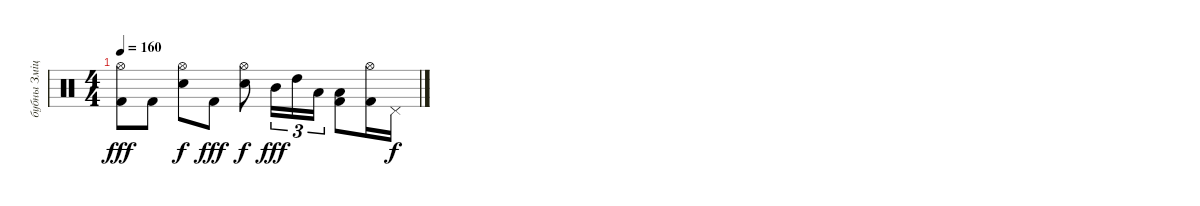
\track ("бубны Змiцер" "бубны Змiц") {instrument percussion}
\staff {score}
\articulation defaults
\ts (4 4)
\tempo 160
\clef neutral
\ks c
("Hi-Hat (open)" "Kick (hit) 2").8{dy fff} "Kick (hit) 2".8 ("Hi-Hat (open)" "Electric Snare (hit)").8{dy f} "Kick (hit) 2".8{dy fff} ("Hi-Hat (open)" "Electric Snare (hit)").8{dy f} "Mid Tom (hit)".16{tu (3 2) dy fff} "High Tom (hit)".16{tu (3 2)} "Low Tom (hit)".16{tu (3 2)} ("Low Tom (hit)" "Kick (hit) 2").8 ("Hi-Hat (open)" "Kick (hit) 2").16 "Pedal Hi-Hat (hit)".16{dy f}
